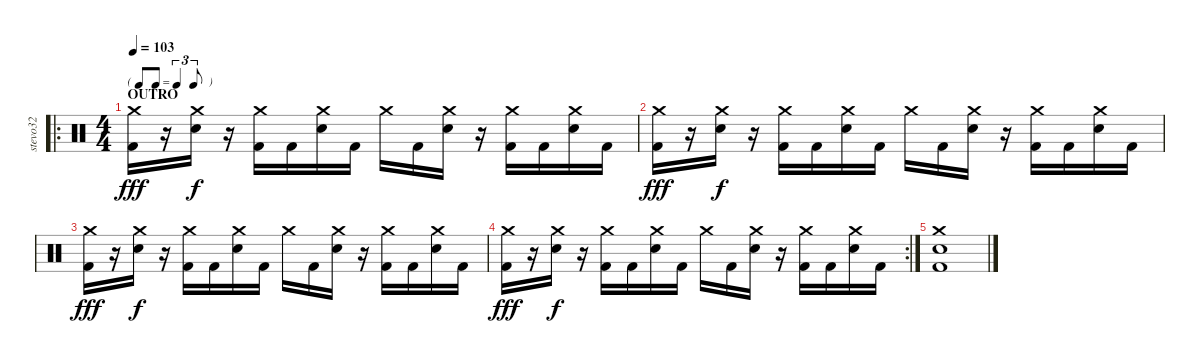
\track ("stevo32" "stevo32") {instrument percussion}
\staff {score}
\articulation defaults
\ro
\ts (4 4)
\tf triplet8th
\section ("" "OUTRO")
\tempo 103
\clef neutral
\ks c
("Crash medium (hit)" "Kick (hit) 2").16{dy fff} r.16 ("Crash medium (hit)" "Electric Snare (hit)").16{dy f} r.16 ("Crash medium (hit)" "Kick (hit) 2").16 "Kick (hit) 2".16 ("Crash medium (hit)" "Electric Snare (hit)").16 "Kick (hit) 2".16 "Crash medium (hit)".16 "Kick (hit) 2".16 ("Crash medium (hit)" "Electric Snare (hit)").16 r.16 ("Crash medium (hit)" "Kick (hit) 2").16 "Kick (hit) 2".16 ("Crash medium (hit)" "Electric Snare (hit)").16 "Kick (hit) 2".16 |
("Crash medium (hit)" "Kick (hit) 2").16{dy fff} r.16 ("Crash medium (hit)" "Electric Snare (hit)").16{dy f} r.16 ("Crash medium (hit)" "Kick (hit) 2").16 "Kick (hit) 2".16 ("Crash medium (hit)" "Electric Snare (hit)").16 "Kick (hit) 2".16 "Crash medium (hit)".16 "Kick (hit) 2".16 ("Crash medium (hit)" "Electric Snare (hit)").16 r.16 ("Crash medium (hit)" "Kick (hit) 2").16 "Kick (hit) 2".16 ("Crash medium (hit)" "Electric Snare (hit)").16 "Kick (hit) 2".16 |
("Crash medium (hit)" "Kick (hit) 2").16{dy fff} r.16 ("Crash medium (hit)" "Electric Snare (hit)").16{dy f} r.16 ("Crash medium (hit)" "Kick (hit) 2").16 "Kick (hit) 2".16 ("Crash medium (hit)" "Electric Snare (hit)").16 "Kick (hit) 2".16 "Crash medium (hit)".16 "Kick (hit) 2".16 ("Crash medium (hit)" "Electric Snare (hit)").16 r.16 ("Crash medium (hit)" "Kick (hit) 2").16 "Kick (hit) 2".16 ("Crash medium (hit)" "Electric Snare (hit)").16 "Kick (hit) 2".16 |
\rc 2
("Crash medium (hit)" "Kick (hit) 2").16{dy fff} r.16 ("Crash medium (hit)" "Electric Snare (hit)").16{dy f} r.16 ("Crash medium (hit)" "Kick (hit) 2").16 "Kick (hit) 2".16 ("Crash medium (hit)" "Electric Snare (hit)").16 "Kick (hit) 2".16 "Crash medium (hit)".16 "Kick (hit) 2".16 ("Crash medium (hit)" "Electric Snare (hit)").16 r.16 ("Crash medium (hit)" "Kick (hit) 2").16 "Kick (hit) 2".16 ("Crash medium (hit)" "Electric Snare (hit)").16 "Kick (hit) 2".16 |
("Crash medium (hit)" "Kick (hit) 2" "Electric Snare (hit)").1
